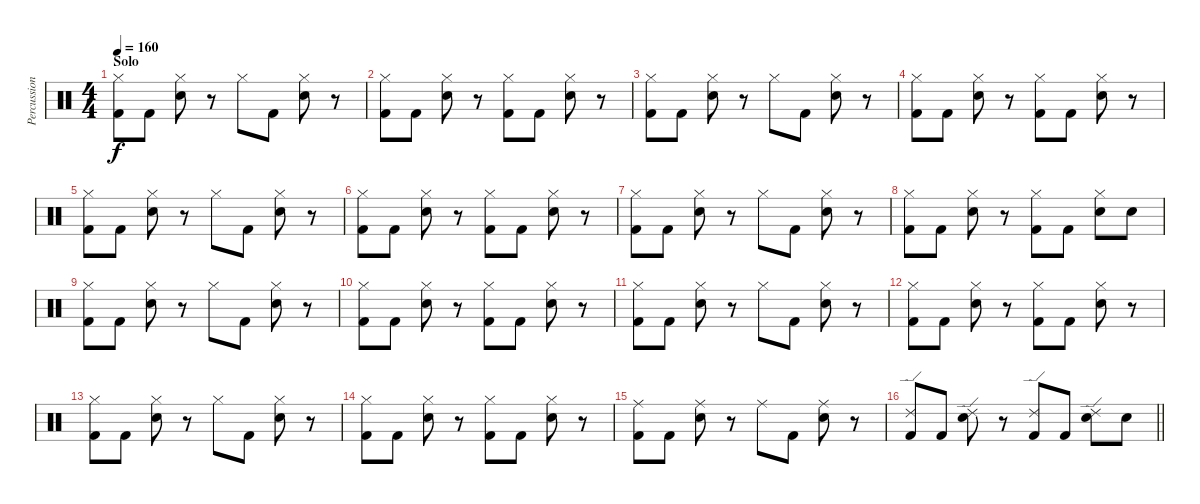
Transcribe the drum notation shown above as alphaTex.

\track ("Percussion" "Percussion") {instrument percussion}
\staff {score}
\articulation defaults
\ts (4 4)
\section ("" "Solo")
\tempo 160
\clef neutral
\ks c
("Hi-Hat (closed)" "Kick (hit) 2").8{dy f} "Kick (hit) 2".8 ("Hi-Hat (closed)" "Snare (hit) 2").8 r.8 "Hi-Hat (closed)".8 "Kick (hit) 2".8 ("Hi-Hat (closed)" "Snare (hit) 2").8 r.8 |
("Hi-Hat (closed)" "Kick (hit) 2").8 "Kick (hit) 2".8 ("Hi-Hat (closed)" "Snare (hit) 2").8 r.8 ("Hi-Hat (closed)" "Kick (hit) 2").8 "Kick (hit) 2".8 ("Hi-Hat (closed)" "Snare (hit) 2").8 r.8 |
("Hi-Hat (closed)" "Kick (hit) 2").8 "Kick (hit) 2".8 ("Hi-Hat (closed)" "Snare (hit) 2").8 r.8 "Hi-Hat (closed)".8 "Kick (hit) 2".8 ("Hi-Hat (closed)" "Snare (hit) 2").8 r.8 |
("Hi-Hat (closed)" "Kick (hit) 2").8 "Kick (hit) 2".8 ("Hi-Hat (closed)" "Snare (hit) 2").8 r.8 ("Hi-Hat (closed)" "Kick (hit) 2").8 "Kick (hit) 2".8 ("Hi-Hat (closed)" "Snare (hit) 2").8 r.8 |
("Hi-Hat (closed)" "Kick (hit) 2").8 "Kick (hit) 2".8 ("Hi-Hat (closed)" "Snare (hit) 2").8 r.8 "Hi-Hat (closed)".8 "Kick (hit) 2".8 ("Hi-Hat (closed)" "Snare (hit) 2").8 r.8 |
("Hi-Hat (closed)" "Kick (hit) 2").8 "Kick (hit) 2".8 ("Hi-Hat (closed)" "Snare (hit) 2").8 r.8 ("Hi-Hat (closed)" "Kick (hit) 2").8 "Kick (hit) 2".8 ("Hi-Hat (closed)" "Snare (hit) 2").8 r.8 |
("Hi-Hat (closed)" "Kick (hit) 2").8 "Kick (hit) 2".8 ("Hi-Hat (closed)" "Snare (hit) 2").8 r.8 "Hi-Hat (closed)".8 "Kick (hit) 2".8 ("Hi-Hat (closed)" "Snare (hit) 2").8 r.8 |
("Hi-Hat (closed)" "Kick (hit) 2").8 "Kick (hit) 2".8 ("Hi-Hat (closed)" "Snare (hit) 2").8 r.8 ("Hi-Hat (closed)" "Kick (hit) 2").8 "Kick (hit) 2".8 ("Hi-Hat (closed)" "Snare (hit) 2").8 "Snare (hit) 2".8 |
("Hi-Hat (closed)" "Kick (hit) 2").8 "Kick (hit) 2".8 ("Hi-Hat (closed)" "Snare (hit) 2").8 r.8 "Hi-Hat (closed)".8 "Kick (hit) 2".8 ("Hi-Hat (closed)" "Snare (hit) 2").8 r.8 |
("Hi-Hat (closed)" "Kick (hit) 2").8 "Kick (hit) 2".8 ("Hi-Hat (closed)" "Snare (hit) 2").8 r.8 ("Hi-Hat (closed)" "Kick (hit) 2").8 "Kick (hit) 2".8 ("Hi-Hat (closed)" "Snare (hit) 2").8 r.8 |
("Hi-Hat (closed)" "Kick (hit) 2").8 "Kick (hit) 2".8 ("Hi-Hat (closed)" "Snare (hit) 2").8 r.8 "Hi-Hat (closed)".8 "Kick (hit) 2".8 ("Hi-Hat (closed)" "Snare (hit) 2").8 r.8 |
("Hi-Hat (closed)" "Kick (hit) 2").8 "Kick (hit) 2".8 ("Hi-Hat (closed)" "Snare (hit) 2").8 r.8 ("Hi-Hat (closed)" "Kick (hit) 2").8 "Kick (hit) 2".8 ("Hi-Hat (closed)" "Snare (hit) 2").8 r.8 |
("Hi-Hat (closed)" "Kick (hit) 2").8 "Kick (hit) 2".8 ("Hi-Hat (closed)" "Snare (hit) 2").8 r.8 "Hi-Hat (closed)".8 "Kick (hit) 2".8 ("Hi-Hat (closed)" "Snare (hit) 2").8 r.8 |
("Hi-Hat (closed)" "Kick (hit) 2").8 "Kick (hit) 2".8 ("Hi-Hat (closed)" "Snare (hit) 2").8 r.8 ("Hi-Hat (closed)" "Kick (hit) 2").8 "Kick (hit) 2".8 ("Hi-Hat (closed)" "Snare (hit) 2").8 r.8 |
("Ride (middle)" "Kick (hit) 2").8 "Kick (hit) 2".8 ("Ride (middle)" "Snare (hit) 2").8 r.8 "Ride (middle)".8 "Kick (hit) 2".8 ("Ride (middle)" "Snare (hit) 2").8 r.8 |
\barLineRight lightlight
("Ride (edge) 2" "Kick (hit) 2").8 "Kick (hit) 2".8 ("Ride (edge) 2" "Snare (hit) 2").8 r.8 ("Ride (edge) 2" "Kick (hit) 2").8 "Kick (hit) 2".8 ("Ride (edge) 2" "Snare (hit) 2").8 "Snare (hit) 2".8
